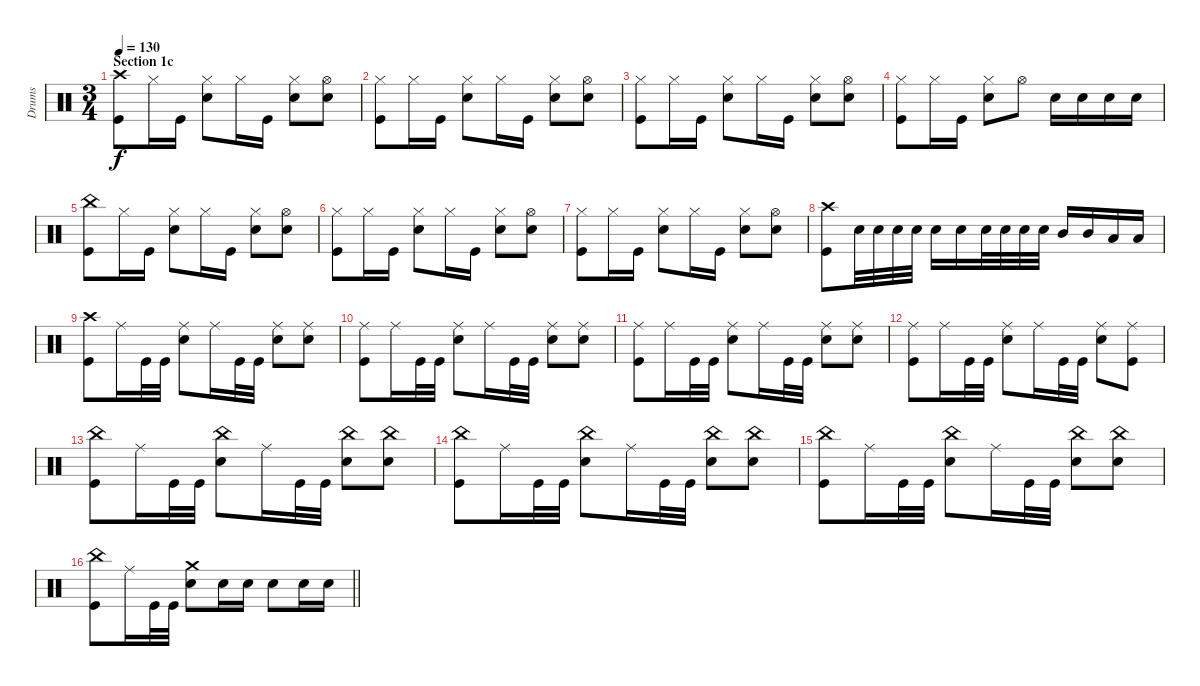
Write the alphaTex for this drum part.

\track ("Drums" "Drums") {instrument percussion}
\staff {score}
\articulation defaults
\ts (3 4)
\section ("" "Section 1c")
\tempo 130
\clef neutral
\ks c
("Crash high (hit)" "Kick (hit)").8{dy f} "Hi-Hat (closed)".16 "Kick (hit)".16 ("Hi-Hat (closed)" "Snare (hit) 2").8 "Hi-Hat (closed)".16 "Kick (hit)".16 ("Hi-Hat (closed)" "Snare (hit) 2").8 ("Hi-Hat (open)" "Snare (hit) 2").8 |
("Hi-Hat (closed)" "Kick (hit)").8 "Hi-Hat (closed)".16 "Kick (hit)".16 ("Hi-Hat (closed)" "Snare (hit) 2").8 "Hi-Hat (closed)".16 "Kick (hit)".16 ("Hi-Hat (closed)" "Snare (hit) 2").8 ("Hi-Hat (open)" "Snare (hit) 2").8 |
("Hi-Hat (closed)" "Kick (hit)").8 "Hi-Hat (closed)".16 "Kick (hit)".16 ("Hi-Hat (closed)" "Snare (hit) 2").8 "Hi-Hat (closed)".16 "Kick (hit)".16 ("Hi-Hat (closed)" "Snare (hit) 2").8 ("Hi-Hat (open)" "Snare (hit) 2").8 |
("Hi-Hat (closed)" "Kick (hit)").8 "Hi-Hat (closed)".16 "Kick (hit)".16 ("Hi-Hat (closed)" "Snare (hit) 2").8 "Hi-Hat (open)".8 "Snare (hit) 2".16 "Snare (hit) 2".16 "Snare (hit) 2".16 "Snare (hit) 2".16 |
("China (hit)" "Kick (hit)").8 "Hi-Hat (closed)".16 "Kick (hit)".16 ("Hi-Hat (closed)" "Snare (hit) 2").8 "Hi-Hat (closed)".16 "Kick (hit)".16 ("Hi-Hat (closed)" "Snare (hit) 2").8 ("Hi-Hat (open)" "Snare (hit) 2").8 |
("Hi-Hat (closed)" "Kick (hit)").8 "Hi-Hat (closed)".16 "Kick (hit)".16 ("Hi-Hat (closed)" "Snare (hit) 2").8 "Hi-Hat (closed)".16 "Kick (hit)".16 ("Hi-Hat (closed)" "Snare (hit) 2").8 ("Hi-Hat (open)" "Snare (hit) 2").8 |
("Hi-Hat (closed)" "Kick (hit)").8 "Hi-Hat (closed)".16 "Kick (hit)".16 ("Hi-Hat (closed)" "Snare (hit) 2").8 "Hi-Hat (closed)".16 "Kick (hit)".16 ("Hi-Hat (closed)" "Snare (hit) 2").8 ("Hi-Hat (open)" "Snare (hit) 2").8 |
("Crash high (hit)" "Kick (hit)").8 "Snare (hit) 2".32 "Snare (hit) 2".32 "Snare (hit) 2".32 "Snare (hit) 2".32 "Snare (hit) 2".16 "Snare (hit) 2".16 "Snare (hit) 2".32 "Snare (hit) 2".32 "Snare (hit) 2".32 "Snare (hit) 2".32 "Mid Tom (hit)".16 "Mid Tom (hit)".16 "Low Tom (hit)".16 "Low Tom (hit)".16 |
("Crash high (hit)" "Kick (hit)").8 "Ride (middle)".16 "Kick (hit)".32 "Kick (hit)".32 ("Ride (middle)" "Snare (hit) 2").8 "Ride (middle)".16 "Kick (hit)".32 "Kick (hit)".32 ("Ride (middle)" "Snare (hit) 2").8 ("Ride (middle)" "Snare (hit) 2").8 |
("Ride (middle)" "Kick (hit)").8 "Ride (middle)".16 "Kick (hit)".32 "Kick (hit)".32 ("Ride (middle)" "Snare (hit) 2").8 "Ride (middle)".16 "Kick (hit)".32 "Kick (hit)".32 ("Ride (middle)" "Snare (hit) 2").8 ("Ride (middle)" "Snare (hit) 2").8 |
("Ride (middle)" "Kick (hit)").8 "Ride (middle)".16 "Kick (hit)".32 "Kick (hit)".32 ("Ride (middle)" "Snare (hit) 2").8 "Ride (middle)".16 "Kick (hit)".32 "Kick (hit)".32 ("Ride (middle)" "Snare (hit) 2").8 ("Ride (middle)" "Snare (hit) 2").8 |
("Ride (middle)" "Kick (hit)").8 "Ride (middle)".16 "Kick (hit)".32 "Kick (hit)".32 ("Ride (middle)" "Snare (hit) 2").8 "Ride (middle)".16 "Kick (hit)".32 "Kick (hit)".32 ("Ride (middle)" "Snare (hit) 2").8 ("Ride (middle)" "Kick (hit)").8 |
("China (hit)" "Kick (hit)").8 "Ride (middle)".16 "Kick (hit)".32 "Kick (hit)".32 ("China (hit)" "Snare (hit) 2").8 "Ride (middle)".16 "Kick (hit)".32 "Kick (hit)".32 ("China (hit)" "Snare (hit) 2").8 ("China (hit)" "Snare (hit) 2").8 |
("China (hit)" "Kick (hit)").8 "Ride (middle)".16 "Kick (hit)".32 "Kick (hit)".32 ("China (hit)" "Snare (hit) 2").8 "Ride (middle)".16 "Kick (hit)".32 "Kick (hit)".32 ("China (hit)" "Snare (hit) 2").8 ("China (hit)" "Snare (hit) 2").8 |
("China (hit)" "Kick (hit)").8 "Ride (middle)".16 "Kick (hit)".32 "Kick (hit)".32 ("China (hit)" "Snare (hit) 2").8 "Ride (middle)".16 "Kick (hit)".32 "Kick (hit)".32 ("China (hit)" "Snare (hit) 2").8 ("China (hit)" "Snare (hit) 2").8 |
\barLineRight lightlight
("China (hit)" "Kick (hit)").8 "Ride (middle)".16 "Kick (hit)".32 "Kick (hit)".32 ("Crash medium (hit)" "Snare (hit) 2").8 "Snare (hit) 2".16 "Snare (hit) 2".16 "Snare (hit) 2".8 "Snare (hit) 2".16 "Snare (hit) 2".16
